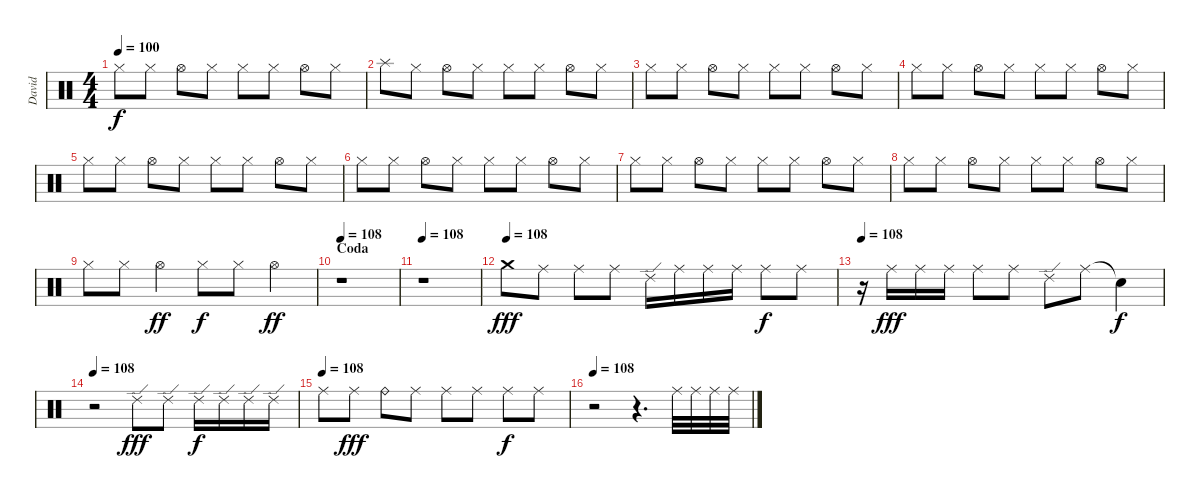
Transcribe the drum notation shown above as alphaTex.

\track ("David" "David") {instrument percussion}
\staff {score}
\articulation defaults
\ts (4 4)
\tempo 100
\clef neutral
\ks c "Hi-Hat (closed)".8{dy f} "Hi-Hat (closed)".8 "Hi-Hat (open)".8 "Hi-Hat (closed)".8 "Hi-Hat (closed)".8 "Hi-Hat (closed)".8 "Hi-Hat (open)".8 "Hi-Hat (closed)".8
|
"Splash (hit)".8 "Hi-Hat (closed)".8 "Hi-Hat (open)".8 "Hi-Hat (closed)".8 "Hi-Hat (closed)".8 "Hi-Hat (closed)".8 "Hi-Hat (open)".8 "Hi-Hat (closed)".8 |
"Hi-Hat (closed)".8 "Hi-Hat (closed)".8 "Hi-Hat (open)".8 "Hi-Hat (closed)".8 "Hi-Hat (closed)".8 "Hi-Hat (closed)".8 "Hi-Hat (open)".8 "Hi-Hat (closed)".8 |
"Hi-Hat (closed)".8 "Hi-Hat (closed)".8 "Hi-Hat (open)".8 "Hi-Hat (closed)".8 "Hi-Hat (closed)".8 "Hi-Hat (closed)".8 "Hi-Hat (open)".8 "Hi-Hat (closed)".8 |
"Hi-Hat (closed)".8 "Hi-Hat (closed)".8 "Hi-Hat (open)".8 "Hi-Hat (closed)".8 "Hi-Hat (closed)".8 "Hi-Hat (closed)".8 "Hi-Hat (open)".8 "Hi-Hat (closed)".8 |
"Hi-Hat (closed)".8 "Hi-Hat (closed)".8 "Hi-Hat (open)".8 "Hi-Hat (closed)".8 "Hi-Hat (closed)".8 "Hi-Hat (closed)".8 "Hi-Hat (open)".8 "Hi-Hat (closed)".8 |
"Hi-Hat (closed)".8 "Hi-Hat (closed)".8 "Hi-Hat (open)".8 "Hi-Hat (closed)".8 "Hi-Hat (closed)".8 "Hi-Hat (closed)".8 "Hi-Hat (open)".8 "Hi-Hat (closed)".8 |
"Hi-Hat (closed)".8 "Hi-Hat (closed)".8 "Hi-Hat (open)".8 "Hi-Hat (closed)".8 "Hi-Hat (closed)".8 "Hi-Hat (closed)".8 "Hi-Hat (open)".8 "Hi-Hat (closed)".8 |
"Hi-Hat (closed)".8 "Hi-Hat (closed)".8 "Hi-Hat (open)".4{dy ff} "Hi-Hat (closed)".8{dy f} "Hi-Hat (closed)".8 "Hi-Hat (open)".4{dy ff} |
\section ("" "Coda")
\tempo 108
r.1 |
\tempo 108
r.1 |
\tempo (108)
"Crash medium (hit)".8{dy fff} "Ride (middle)".8 "Ride (middle)".8 "Ride (middle)".8 "Ride (edge) 2".16 "Ride (middle)".16 "Ride (middle)".16 "Ride (middle)".16 "Ride (middle)".8{dy f} "Ride (middle)".8 |
\tempo 108
r.16 "Ride (middle)".16{dy fff} "Ride (middle)".16 "Ride (middle)".16 "Ride (middle)".8 "Ride (middle)".8 "Ride (edge) 2".8 "Ride (middle)".8 "Snare (hit)"{t}.4{dy f} |
\tempo 108
r.2 "Ride (edge) 2".8{dy fff} "Ride (edge) 2".8 "Ride (edge) 2".16{dy f} "Ride (edge) 2".16 "Ride (edge) 2".16 "Ride (edge) 2".16 |
\tempo (108)
"Ride (middle)".8 "Ride (middle)".8{dy fff} "Ride (bell)".8 "Ride (middle)".8 "Ride (middle)".8 "Ride (middle)".8 "Ride (middle)".8{dy f} "Ride (middle)".8 |
\tempo 108
r.2 r.4{d} "Ride (middle)".32 "Ride (middle)".32 "Ride (middle)".32 "Ride (middle)".32
